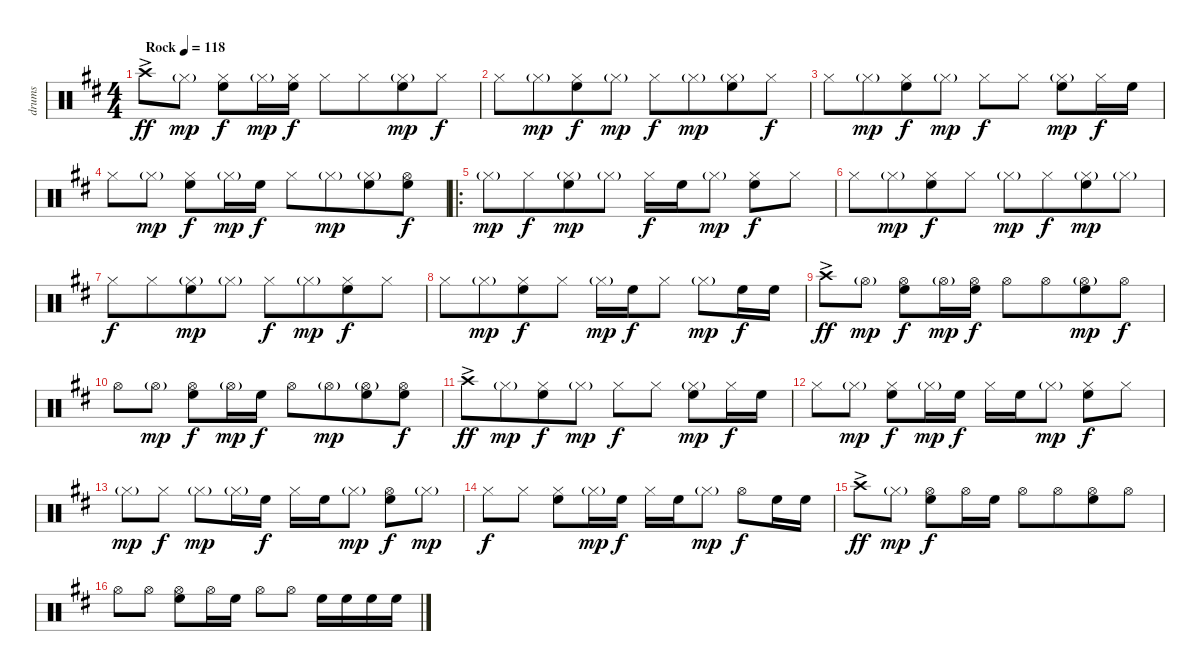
\track ("drums" "drums") {instrument percussion}
\staff {score}
\articulation defaults
\ts (4 4)
\tempo (118 "Rock")
\clef neutral
\ks d "Crash high (hit)"{ac}.8{dy ff} "Hi-Hat (closed)"{g}.8{dy mp}
("Hi-Hat (closed)" "High Floor Tom (hit)").8{dy f} "Hi-Hat (closed)"{g}.16{dy mp} ("Hi-Hat (closed)" "High Floor Tom (hit)").16{dy f} "Hi-Hat (closed)".8 "Hi-Hat (closed)".8{beam merge} ("Hi-Hat (closed)"{g} "High Floor Tom (hit)").8{dy mp beam merge} "Hi-Hat (closed)".8{dy f} |
"Hi-Hat (closed)".8 "Hi-Hat (closed)"{g}.8{dy mp beam merge} ("Hi-Hat (closed)" "High Floor Tom (hit)").8{dy f} "Hi-Hat (closed)"{g}.8{dy mp} "Hi-Hat (closed)".8{dy f} "Hi-Hat (closed)"{g}.8{dy mp beam merge} ("Hi-Hat (closed)"{g} "High Floor Tom (hit)").8 "Hi-Hat (closed)".8{dy f} |
"Hi-Hat (closed)".8 "Hi-Hat (closed)"{g}.8{dy mp beam merge} ("Hi-Hat (closed)" "High Floor Tom (hit)").8{dy f} "Hi-Hat (closed)"{g}.8{dy mp} "Hi-Hat (closed)".8{dy f} "Hi-Hat (closed)".8 ("Hi-Hat (closed)"{g} "High Floor Tom (hit)").8{dy mp} "Hi-Hat (closed)".16{dy f} "High Floor Tom (hit)".16 |
"Hi-Hat (closed)".8 "Hi-Hat (closed)"{g}.8{dy mp} ("Hi-Hat (closed)" "High Floor Tom (hit)").8{dy f} "Hi-Hat (closed)"{g}.16{dy mp} "High Floor Tom (hit)".16{dy f} "Hi-Hat (closed)".8{beam merge} "Hi-Hat (closed)"{g}.8{dy mp beam merge} ("Hi-Hat (closed)"{g} "High Floor Tom (hit)").8 ("Hi-Hat (open)" "High Floor Tom (hit)").8{dy f} |
\ro "Hi-Hat (closed)"{g}.8{dy mp} "Hi-Hat (closed)".8{dy f beam merge}
("Hi-Hat (closed)"{g} "High Floor Tom (hit)").8{dy mp} "Hi-Hat (closed)"{g}.8 "Hi-Hat (closed)".16{dy f} "High Floor Tom (hit)".16{beam merge} "Hi-Hat (closed)"{g}.8{dy mp beam split} ("Hi-Hat (closed)" "High Floor Tom (hit)").8{dy f} "Hi-Hat (closed)".8 |
"Hi-Hat (closed)".8 "Hi-Hat (closed)"{g}.8{dy mp beam merge} ("Hi-Hat (closed)" "High Floor Tom (hit)").8{dy f} "Hi-Hat (closed)".8 "Hi-Hat (closed)"{g}.8{dy mp} "Hi-Hat (closed)".8{dy f beam merge} ("Hi-Hat (closed)"{g} "High Floor Tom (hit)").8{dy mp} "Hi-Hat (closed)"{g}.8 |
"Hi-Hat (closed)".8{dy f} "Hi-Hat (closed)".8{beam merge} ("Hi-Hat (closed)"{g} "High Floor Tom (hit)").8{dy mp} "Hi-Hat (closed)"{g}.8 "Hi-Hat (closed)".8{dy f} "Hi-Hat (closed)"{g}.8{dy mp beam merge} ("Hi-Hat (closed)" "High Floor Tom (hit)").8{dy f} "Hi-Hat (closed)".8 |
"Hi-Hat (closed)".8 "Hi-Hat (closed)"{g}.8{dy mp beam merge} ("Hi-Hat (closed)" "High Floor Tom (hit)").8{dy f} "Hi-Hat (closed)".8 "Hi-Hat (closed)"{g}.16{dy mp} "High Floor Tom (hit)".16{dy f beam merge} "Hi-Hat (closed)".8 "Hi-Hat (closed)"{g}.8{dy mp} "High Floor Tom (hit)".16{dy f} "High Floor Tom (hit)".16 |
"Crash high (hit)"{ac}.8{dy ff} "Hi-Hat (open)"{g}.8{dy mp} ("Hi-Hat (open)" "High Floor Tom (hit)").8{dy f} "Hi-Hat (open)"{g}.16{dy mp} ("Hi-Hat (open)" "High Floor Tom (hit)").16{dy f} "Hi-Hat (open)".8 "Hi-Hat (open)".8{beam merge} ("Hi-Hat (open)"{g} "High Floor Tom (hit)").8{dy mp beam merge} "Hi-Hat (open)".8{dy f} |
"Hi-Hat (open)".8 "Hi-Hat (open)"{g}.8{dy mp} ("Hi-Hat (open)" "High Floor Tom (hit)").8{dy f} "Hi-Hat (open)"{g}.16{dy mp} "High Floor Tom (hit)".16{dy f} "Hi-Hat (open)".8{beam merge} "Hi-Hat (open)"{g}.8{dy mp beam merge} ("Hi-Hat (open)"{g} "High Floor Tom (hit)").8 ("Hi-Hat (open)" "High Floor Tom (hit)").8{dy f} |
"Crash high (hit)"{ac}.8{dy ff} "Hi-Hat (closed)"{g}.8{dy mp beam merge} ("Hi-Hat (closed)" "High Floor Tom (hit)").8{dy f} "Hi-Hat (closed)"{g}.8{dy mp} "Hi-Hat (closed)".8{dy f} "Hi-Hat (closed)".8 ("Hi-Hat (closed)"{g} "High Floor Tom (hit)").8{dy mp} "Hi-Hat (closed)".16{dy f} "High Floor Tom (hit)".16 |
"Hi-Hat (closed)".8 "Hi-Hat (closed)"{g}.8{dy mp} ("Hi-Hat (closed)" "High Floor Tom (hit)").8{dy f} "Hi-Hat (closed)"{g}.16{dy mp} "High Floor Tom (hit)".16{dy f} "Hi-Hat (closed)".16 "High Floor Tom (hit)".16{beam merge} "Hi-Hat (closed)"{g}.8{dy mp beam split} ("Hi-Hat (closed)" "High Floor Tom (hit)").8{dy f} "Hi-Hat (closed)".8 |
"Hi-Hat (closed)"{g}.8{dy mp} "Hi-Hat (closed)".8{dy f} "Hi-Hat (closed)"{g}.8{dy mp} "Hi-Hat (closed)"{g}.16 "High Floor Tom (hit)".16{dy f} "Hi-Hat (closed)".16 "High Floor Tom (hit)".16 "Hi-Hat (closed)"{g}.8{dy mp} ("Hi-Hat (open)" "High Floor Tom (hit)").8{dy f} "Hi-Hat (closed)"{g}.8{dy mp} |
"Hi-Hat (closed)".8{dy f} "Hi-Hat (closed)".8 ("Hi-Hat (closed)" "High Floor Tom (hit)").8 "Hi-Hat (closed)"{g}.16{dy mp} "High Floor Tom (hit)".16{dy f} "Hi-Hat (closed)".16 "High Floor Tom (hit)".16 "Hi-Hat (closed)"{g}.8{dy mp} "Hi-Hat (open)".8{dy f} "High Floor Tom (hit)".16 "High Floor Tom (hit)".16 |
"Crash high (hit)"{ac}.8{dy ff} "Hi-Hat (closed)"{g}.8{dy mp} ("Hi-Hat (open)" "High Floor Tom (hit)").8{dy f} "Hi-Hat (open)".16 "High Floor Tom (hit)".16 "Hi-Hat (open)".8 "Hi-Hat (open)".8{beam merge} ("Hi-Hat (open)" "High Floor Tom (hit)").8 "Hi-Hat (open)".8 |
"Hi-Hat (open)".8 "Hi-Hat (open)".8 ("Hi-Hat (open)" "High Floor Tom (hit)").8 "Hi-Hat (open)".16 "High Floor Tom (hit)".16 "Hi-Hat (open)".8 "Hi-Hat (open)".8 "High Floor Tom (hit)".16 "High Floor Tom (hit)".16 "High Floor Tom (hit)".16 "High Floor Tom (hit)".16
